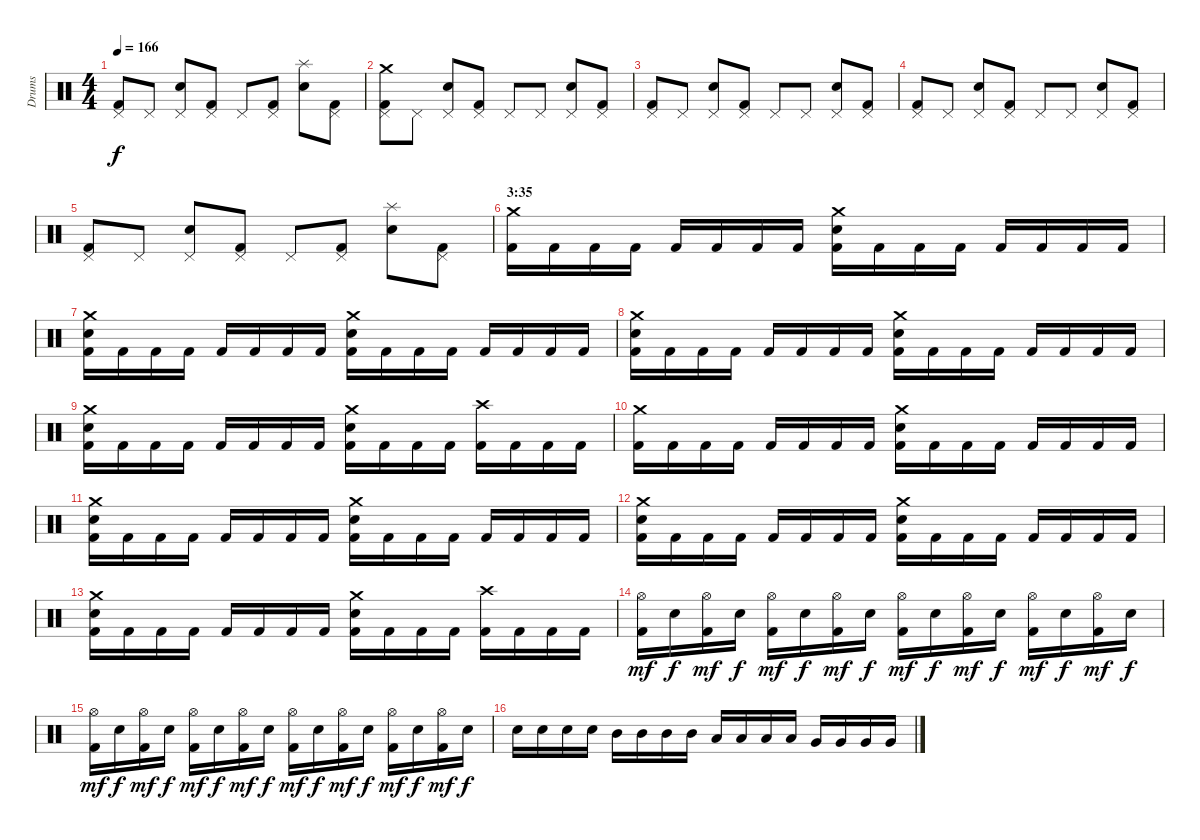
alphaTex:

\track ("Drums" "Drums") {instrument percussion}
\staff {score}
\articulation defaults
\ts (4 4)
\tempo 166
\clef neutral
\ks c
("Pedal Hi-Hat (hit)" "Kick (hit) 2").8{dy f} "Pedal Hi-Hat (hit)".8 ("Pedal Hi-Hat (hit)" "Electric Snare (hit)").8 ("Pedal Hi-Hat (hit)" "Kick (hit) 2").8 "Pedal Hi-Hat (hit)".8 ("Pedal Hi-Hat (hit)" "Kick (hit) 2").8 ("Splash (hit)" "Electric Snare (hit)").8 ("Pedal Hi-Hat (hit)" "Kick (hit) 2").8 |
("Crash medium (hit)" "Pedal Hi-Hat (hit)" "Kick (hit) 2").8 "Pedal Hi-Hat (hit)".8 ("Pedal Hi-Hat (hit)" "Electric Snare (hit)").8 ("Pedal Hi-Hat (hit)" "Kick (hit) 2").8 "Pedal Hi-Hat (hit)".8 "Pedal Hi-Hat (hit)".8 ("Pedal Hi-Hat (hit)" "Electric Snare (hit)").8 ("Pedal Hi-Hat (hit)" "Kick (hit) 2").8 |
("Pedal Hi-Hat (hit)" "Kick (hit) 2").8 "Pedal Hi-Hat (hit)".8 ("Pedal Hi-Hat (hit)" "Electric Snare (hit)").8 ("Pedal Hi-Hat (hit)" "Kick (hit) 2").8 "Pedal Hi-Hat (hit)".8 "Pedal Hi-Hat (hit)".8 ("Pedal Hi-Hat (hit)" "Electric Snare (hit)").8 ("Pedal Hi-Hat (hit)" "Kick (hit) 2").8 |
("Pedal Hi-Hat (hit)" "Kick (hit) 2").8 "Pedal Hi-Hat (hit)".8 ("Pedal Hi-Hat (hit)" "Electric Snare (hit)").8 ("Pedal Hi-Hat (hit)" "Kick (hit) 2").8 "Pedal Hi-Hat (hit)".8 "Pedal Hi-Hat (hit)".8 ("Pedal Hi-Hat (hit)" "Electric Snare (hit)").8 ("Pedal Hi-Hat (hit)" "Kick (hit) 2").8 |
("Pedal Hi-Hat (hit)" "Kick (hit) 2").8 "Pedal Hi-Hat (hit)".8 ("Pedal Hi-Hat (hit)" "Electric Snare (hit)").8 ("Pedal Hi-Hat (hit)" "Kick (hit) 2").8 "Pedal Hi-Hat (hit)".8 ("Pedal Hi-Hat (hit)" "Kick (hit) 2").8 ("Splash (hit)" "Electric Snare (hit)").8 ("Pedal Hi-Hat (hit)" "Kick (hit) 2").8 |
\section ("" "3:35")
("Crash medium (hit)" "Kick (hit) 2").16 "Kick (hit) 2".16 "Kick (hit) 2".16 "Kick (hit) 2".16 "Kick (hit) 2".16 "Kick (hit) 2".16 "Kick (hit) 2".16 "Kick (hit) 2".16 ("Crash medium (hit)" "Electric Snare (hit)" "Kick (hit) 2").16 "Kick (hit) 2".16 "Kick (hit) 2".16 "Kick (hit) 2".16 "Kick (hit) 2".16 "Kick (hit) 2".16 "Kick (hit) 2".16 "Kick (hit) 2".16 |
("Crash medium (hit)" "Electric Snare (hit)" "Kick (hit) 2").16 "Kick (hit) 2".16 "Kick (hit) 2".16 "Kick (hit) 2".16 "Kick (hit) 2".16 "Kick (hit) 2".16 "Kick (hit) 2".16 "Kick (hit) 2".16 ("Crash medium (hit)" "Electric Snare (hit)" "Kick (hit) 2").16 "Kick (hit) 2".16 "Kick (hit) 2".16 "Kick (hit) 2".16 "Kick (hit) 2".16 "Kick (hit) 2".16 "Kick (hit) 2".16 "Kick (hit) 2".16 |
("Crash medium (hit)" "Electric Snare (hit)" "Kick (hit) 2").16 "Kick (hit) 2".16 "Kick (hit) 2".16 "Kick (hit) 2".16 "Kick (hit) 2".16 "Kick (hit) 2".16 "Kick (hit) 2".16 "Kick (hit) 2".16 ("Crash medium (hit)" "Electric Snare (hit)" "Kick (hit) 2").16 "Kick (hit) 2".16 "Kick (hit) 2".16 "Kick (hit) 2".16 "Kick (hit) 2".16 "Kick (hit) 2".16 "Kick (hit) 2".16 "Kick (hit) 2".16 |
("Crash medium (hit)" "Electric Snare (hit)" "Kick (hit) 2").16 "Kick (hit) 2".16 "Kick (hit) 2".16 "Kick (hit) 2".16 "Kick (hit) 2".16 "Kick (hit) 2".16 "Kick (hit) 2".16 "Kick (hit) 2".16 ("Crash medium (hit)" "Electric Snare (hit)" "Kick (hit) 2").16 "Kick (hit) 2".16 "Kick (hit) 2".16 "Kick (hit) 2".16 ("Crash high (hit)" "Kick (hit) 2").16 "Kick (hit) 2".16 "Kick (hit) 2".16 "Kick (hit) 2".16 |
("Crash medium (hit)" "Kick (hit) 2").16 "Kick (hit) 2".16 "Kick (hit) 2".16 "Kick (hit) 2".16 "Kick (hit) 2".16 "Kick (hit) 2".16 "Kick (hit) 2".16 "Kick (hit) 2".16 ("Crash medium (hit)" "Electric Snare (hit)" "Kick (hit) 2").16 "Kick (hit) 2".16 "Kick (hit) 2".16 "Kick (hit) 2".16 "Kick (hit) 2".16 "Kick (hit) 2".16 "Kick (hit) 2".16 "Kick (hit) 2".16 |
("Crash medium (hit)" "Electric Snare (hit)" "Kick (hit) 2").16 "Kick (hit) 2".16 "Kick (hit) 2".16 "Kick (hit) 2".16 "Kick (hit) 2".16 "Kick (hit) 2".16 "Kick (hit) 2".16 "Kick (hit) 2".16 ("Crash medium (hit)" "Electric Snare (hit)" "Kick (hit) 2").16 "Kick (hit) 2".16 "Kick (hit) 2".16 "Kick (hit) 2".16 "Kick (hit) 2".16 "Kick (hit) 2".16 "Kick (hit) 2".16 "Kick (hit) 2".16 |
("Crash medium (hit)" "Electric Snare (hit)" "Kick (hit) 2").16 "Kick (hit) 2".16 "Kick (hit) 2".16 "Kick (hit) 2".16 "Kick (hit) 2".16 "Kick (hit) 2".16 "Kick (hit) 2".16 "Kick (hit) 2".16 ("Crash medium (hit)" "Electric Snare (hit)" "Kick (hit) 2").16 "Kick (hit) 2".16 "Kick (hit) 2".16 "Kick (hit) 2".16 "Kick (hit) 2".16 "Kick (hit) 2".16 "Kick (hit) 2".16 "Kick (hit) 2".16 |
("Crash medium (hit)" "Electric Snare (hit)" "Kick (hit) 2").16 "Kick (hit) 2".16 "Kick (hit) 2".16 "Kick (hit) 2".16 "Kick (hit) 2".16 "Kick (hit) 2".16 "Kick (hit) 2".16 "Kick (hit) 2".16 ("Crash medium (hit)" "Electric Snare (hit)" "Kick (hit) 2").16 "Kick (hit) 2".16 "Kick (hit) 2".16 "Kick (hit) 2".16 ("Crash high (hit)" "Kick (hit) 2").16 "Kick (hit) 2".16 "Kick (hit) 2".16 "Kick (hit) 2".16 |
("Hi-Hat (open)" "Kick (hit) 2").16{dy mf} "Snare (hit) 2".16{dy f} ("Hi-Hat (open)" "Kick (hit) 2").16{dy mf} "Snare (hit) 2".16{dy f} ("Hi-Hat (open)" "Kick (hit) 2").16{dy mf} "Snare (hit) 2".16{dy f} ("Hi-Hat (open)" "Kick (hit) 2").16{dy mf} "Snare (hit) 2".16{dy f} ("Hi-Hat (open)" "Kick (hit) 2").16{dy mf} "Snare (hit) 2".16{dy f} ("Hi-Hat (open)" "Kick (hit) 2").16{dy mf} "Snare (hit) 2".16{dy f} ("Hi-Hat (open)" "Kick (hit) 2").16{dy mf} "Snare (hit) 2".16{dy f} ("Hi-Hat (open)" "Kick (hit) 2").16{dy mf} "Snare (hit) 2".16{dy f} |
("Hi-Hat (open)" "Kick (hit) 2").16{dy mf} "Snare (hit) 2".16{dy f} ("Hi-Hat (open)" "Kick (hit) 2").16{dy mf} "Snare (hit) 2".16{dy f} ("Hi-Hat (open)" "Kick (hit) 2").16{dy mf} "Snare (hit) 2".16{dy f} ("Hi-Hat (open)" "Kick (hit) 2").16{dy mf} "Snare (hit) 2".16{dy f} ("Hi-Hat (open)" "Kick (hit) 2").16{dy mf} "Snare (hit) 2".16{dy f} ("Hi-Hat (open)" "Kick (hit) 2").16{dy mf} "Snare (hit) 2".16{dy f} ("Hi-Hat (open)" "Kick (hit) 2").16{dy mf} "Snare (hit) 2".16{dy f} ("Hi-Hat (open)" "Kick (hit) 2").16{dy mf} "Snare (hit) 2".16{dy f} |
"Electric Snare (hit)".16 "Electric Snare (hit)".16 "Electric Snare (hit)".16 "Electric Snare (hit)".16 "Mid Tom (hit)".16 "Mid Tom (hit)".16 "Mid Tom (hit)".16 "Mid Tom (hit)".16 "Low Tom (hit)".16 "Low Tom (hit)".16 "Low Tom (hit)".16 "Low Tom (hit)".16 "Very Low Tom (hit)".16 "Very Low Tom (hit)".16 "Very Low Tom (hit)".16 "Very Low Tom (hit)".16
